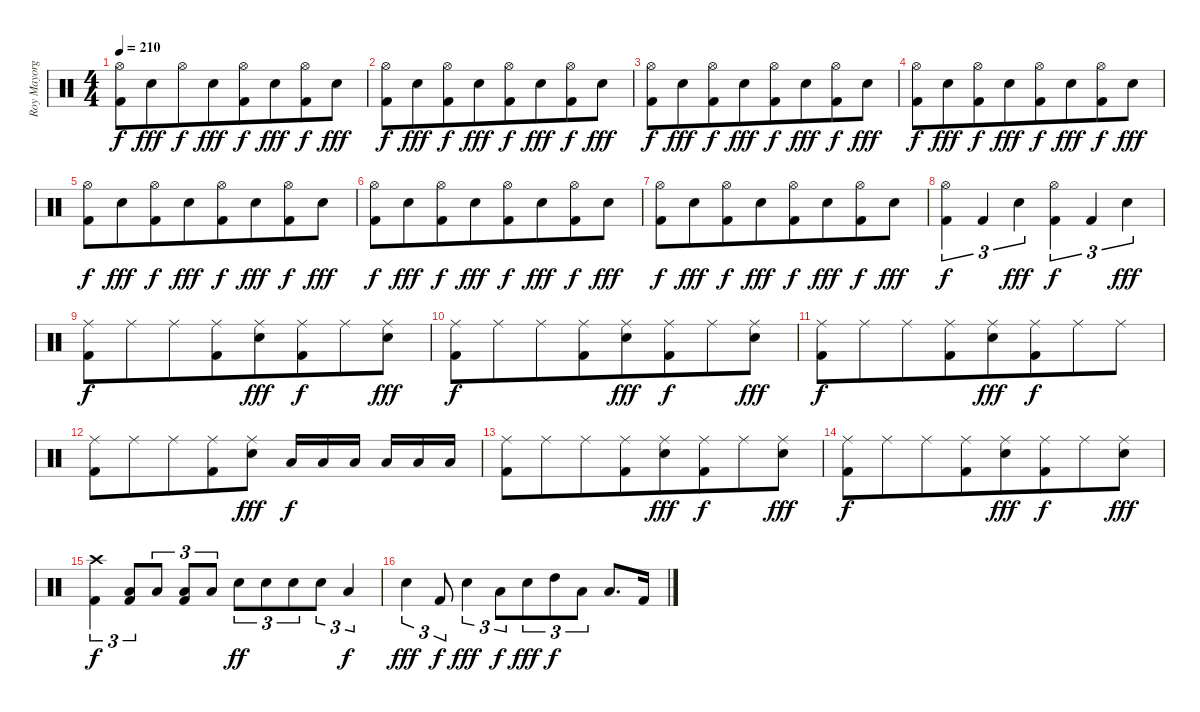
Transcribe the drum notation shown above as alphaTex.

\track ("Roy Mayorga" "Roy Mayorg") {instrument percussion}
\staff {score}
\articulation defaults
\ts (4 4)
\tempo 210
\clef neutral
\ks c
("Hi-Hat (open)" "Kick (hit) 2").8{dy f} "Electric Snare (hit)".8{dy fff beam merge} "Hi-Hat (open)".8{dy f} "Electric Snare (hit)".8{dy fff beam merge} ("Hi-Hat (open)" "Kick (hit) 2").8{dy f} "Electric Snare (hit)".8{dy fff beam merge} ("Hi-Hat (open)" "Kick (hit) 2").8{dy f} "Electric Snare (hit)".8{dy fff} |
("Hi-Hat (open)" "Kick (hit) 2").8{dy f} "Electric Snare (hit)".8{dy fff beam merge} ("Hi-Hat (open)" "Kick (hit) 2").8{dy f} "Electric Snare (hit)".8{dy fff beam merge} ("Hi-Hat (open)" "Kick (hit) 2").8{dy f} "Electric Snare (hit)".8{dy fff beam merge} ("Hi-Hat (open)" "Kick (hit) 2").8{dy f} "Electric Snare (hit)".8{dy fff} |
("Hi-Hat (open)" "Kick (hit) 2").8{dy f} "Electric Snare (hit)".8{dy fff beam merge} ("Hi-Hat (open)" "Kick (hit) 2").8{dy f} "Electric Snare (hit)".8{dy fff beam merge} ("Hi-Hat (open)" "Kick (hit) 2").8{dy f} "Electric Snare (hit)".8{dy fff beam merge} ("Hi-Hat (open)" "Kick (hit) 2").8{dy f} "Electric Snare (hit)".8{dy fff} |
("Hi-Hat (open)" "Kick (hit) 2").8{dy f} "Electric Snare (hit)".8{dy fff beam merge} ("Hi-Hat (open)" "Kick (hit) 2").8{dy f} "Electric Snare (hit)".8{dy fff beam merge} ("Hi-Hat (open)" "Kick (hit) 2").8{dy f} "Electric Snare (hit)".8{dy fff beam merge} ("Hi-Hat (open)" "Kick (hit) 2").8{dy f} "Electric Snare (hit)".8{dy fff} |
("Hi-Hat (open)" "Kick (hit) 2").8{dy f} "Electric Snare (hit)".8{dy fff beam merge} ("Hi-Hat (open)" "Kick (hit) 2").8{dy f} "Electric Snare (hit)".8{dy fff beam merge} ("Hi-Hat (open)" "Kick (hit) 2").8{dy f} "Electric Snare (hit)".8{dy fff beam merge} ("Hi-Hat (open)" "Kick (hit) 2").8{dy f} "Electric Snare (hit)".8{dy fff} |
("Hi-Hat (open)" "Kick (hit) 2").8{dy f} "Electric Snare (hit)".8{dy fff beam merge} ("Hi-Hat (open)" "Kick (hit) 2").8{dy f} "Electric Snare (hit)".8{dy fff beam merge} ("Hi-Hat (open)" "Kick (hit) 2").8{dy f} "Electric Snare (hit)".8{dy fff beam merge} ("Hi-Hat (open)" "Kick (hit) 2").8{dy f} "Electric Snare (hit)".8{dy fff} |
("Hi-Hat (open)" "Kick (hit) 2").8{dy f} "Electric Snare (hit)".8{dy fff beam merge} ("Hi-Hat (open)" "Kick (hit) 2").8{dy f} "Electric Snare (hit)".8{dy fff beam merge} ("Hi-Hat (open)" "Kick (hit) 2").8{dy f} "Electric Snare (hit)".8{dy fff beam merge} ("Hi-Hat (open)" "Kick (hit) 2").8{dy f} "Electric Snare (hit)".8{dy fff} |
("Hi-Hat (open)" "Kick (hit) 2").4{tu (3 2) dy f} "Kick (hit) 2".4{tu (3 2)} "Electric Snare (hit)".4{tu (3 2) dy fff} ("Hi-Hat (open)" "Kick (hit) 2").4{tu (3 2) dy f} "Kick (hit) 2".4{tu (3 2)} "Electric Snare (hit)".4{tu (3 2) dy fff} |
("Ride (middle)" "Kick (hit) 2").8{dy f} "Ride (middle)".8{beam merge} "Ride (middle)".8 ("Ride (middle)" "Kick (hit) 2").8{beam merge} ("Ride (middle)" "Electric Snare (hit)").8{dy fff} ("Ride (middle)" "Kick (hit) 2").8{dy f beam merge} "Ride (middle)".8 ("Ride (middle)" "Electric Snare (hit)").8{dy fff} |
("Ride (middle)" "Kick (hit) 2").8{dy f} "Ride (middle)".8{beam merge} "Ride (middle)".8 ("Ride (middle)" "Kick (hit) 2").8{beam merge} ("Ride (middle)" "Electric Snare (hit)").8{dy fff} ("Ride (middle)" "Kick (hit) 2").8{dy f beam merge} "Ride (middle)".8 ("Ride (middle)" "Electric Snare (hit)").8{dy fff} |
("Ride (middle)" "Kick (hit) 2").8{dy f} "Ride (middle)".8{beam merge} "Ride (middle)".8 ("Ride (middle)" "Kick (hit) 2").8{beam merge} ("Ride (middle)" "Electric Snare (hit)").8{dy fff} ("Ride (middle)" "Kick (hit) 2").8{dy f beam merge} "Ride (middle)".8 "Ride (middle)".8 |
("Ride (middle)" "Kick (hit) 2").8 "Ride (middle)".8{beam merge} "Ride (middle)".8 ("Ride (middle)" "Kick (hit) 2").8{beam merge} ("Ride (middle)" "Electric Snare (hit)").8{dy fff beam split} "Low Tom (hit)".16{dy f} "Low Tom (hit)".16{beam merge} "Low Tom (hit)".16{beam split} "Low Floor Tom (hit)".16 "Low Floor Tom (hit)".16 "Low Floor Tom (hit)".16 |
("Ride (middle)" "Kick (hit) 2").8 "Ride (middle)".8{beam merge} "Ride (middle)".8 ("Ride (middle)" "Kick (hit) 2").8{beam merge} ("Ride (middle)" "Electric Snare (hit)").8{dy fff} ("Ride (middle)" "Kick (hit) 2").8{dy f beam merge} "Ride (middle)".8 ("Ride (middle)" "Electric Snare (hit)").8{dy fff} |
("Ride (middle)" "Kick (hit) 2").8{dy f} "Ride (middle)".8{beam merge} "Ride (middle)".8 ("Ride (middle)" "Kick (hit) 2").8{beam merge} ("Ride (middle)" "Electric Snare (hit)").8{dy fff} ("Ride (middle)" "Kick (hit) 2").8{dy f beam merge} "Ride (middle)".8 ("Ride (middle)" "Electric Snare (hit)").8{dy fff} |
("Crash high (hit)" "Kick (hit) 2").4{tu (3 2) dy f} ("Low Floor Tom (hit)" "Kick (hit) 2").8{tu (3 2) beam merge} "Low Floor Tom (hit)".8{tu (3 2) beam split} ("Low Tom (hit)" "Kick (hit) 2").8{tu (3 2)} "Low Tom (hit)".8{tu (3 2)} "Electric Snare (hit)".8{tu (3 2) dy ff} "Electric Snare (hit)".8{tu (3 2)} "Electric Snare (hit)".8{tu (3 2) beam merge} "Electric Snare (hit)".8{tu (3 2)} "Low Floor Tom (hit)".4{tu (3 2) dy f} |
"Electric Snare (hit)".4{tu (3 2) dy fff} "Kick (hit) 2".8{tu (3 2) dy f} "Electric Snare (hit)".4{tu (3 2) dy fff} "Low Tom (hit)".8{tu (3 2) dy f beam merge} "Electric Snare (hit)".8{tu (3 2) dy fff} "High Tom (hit)".8{tu (3 2) dy f} "Low Tom (hit)".8{tu (3 2)} "Low Floor Tom (hit)".8{d} "Kick (hit) 2".16
